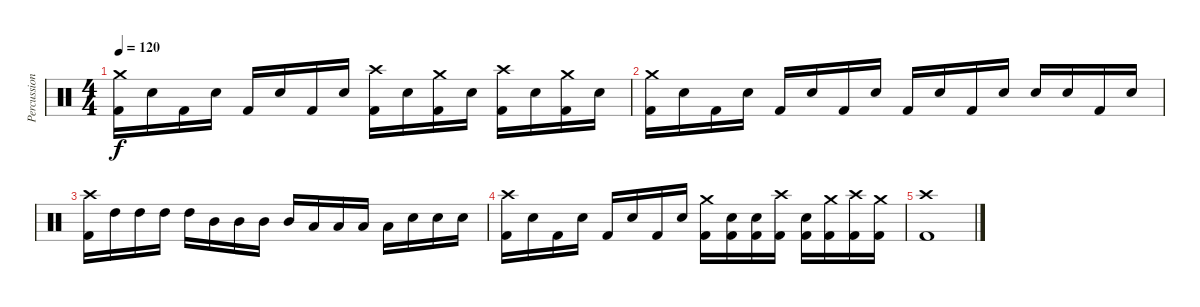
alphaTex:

\track ("Percussion" "Percussion") {instrument percussion}
\staff {score}
\articulation defaults
\ts (4 4)
\tempo 120
\clef neutral
\ks c
("Crash medium (hit)" "Kick (hit) 2").16{dy f} "Snare (hit) 2".16 "Kick (hit) 2".16 "Snare (hit) 2".16 "Kick (hit) 2".16 "Snare (hit) 2".16 "Kick (hit) 2".16 "Snare (hit) 2".16 ("Crash high (hit)" "Kick (hit) 2").16 "Snare (hit) 2".16 ("Crash medium (hit)" "Kick (hit) 2").16 "Snare (hit) 2".16 ("Crash high (hit)" "Kick (hit) 2").16 "Snare (hit) 2".16 ("Crash medium (hit)" "Kick (hit) 2").16 "Snare (hit) 2".16 |
("Crash medium (hit)" "Kick (hit) 2").16 "Snare (hit) 2".16 "Kick (hit) 2".16 "Snare (hit) 2".16 "Kick (hit) 2".16 "Snare (hit) 2".16 "Kick (hit) 2".16 "Snare (hit) 2".16 "Kick (hit) 2".16 "Snare (hit) 2".16 "Kick (hit) 2".16 "Snare (hit) 2".16 "Snare (hit) 2".16 "Snare (hit) 2".16 "Kick (hit) 2".16 "Snare (hit) 2".16 |
("Crash high (hit)" "Kick (hit) 2").16 "High Tom (hit)".16 "High Tom (hit)".16 "High Tom (hit)".16 "High Tom (hit)".16 "Mid Tom (hit)".16 "Mid Tom (hit)".16 "Mid Tom (hit)".16 "Mid Tom (hit)".16 "Low Tom (hit)".16 "Low Tom (hit)".16 "Low Tom (hit)".16 "Low Tom (hit)".16 "Snare (hit) 2".16 "Snare (hit) 2".16 "Snare (hit) 2".16 |
("Crash high (hit)" "Kick (hit) 2").16 "Snare (hit) 2".16 "Kick (hit) 2".16 "Snare (hit) 2".16 "Kick (hit) 2".16 "Snare (hit) 2".16 "Kick (hit) 2".16 "Snare (hit) 2".16 ("Crash medium (hit)" "Kick (hit) 2").16 ("Snare (hit) 2" "Kick (hit) 2").16 ("Snare (hit) 2" "Kick (hit) 2").16 ("Crash high (hit)" "Kick (hit) 2").16 ("Snare (hit) 2" "Kick (hit) 2").16 ("Crash medium (hit)" "Kick (hit) 2").16 ("Crash high (hit)" "Kick (hit) 2").16 ("Crash medium (hit)" "Kick (hit) 2").16 |
("Kick (hit) 2" "Crash high (hit)").1
